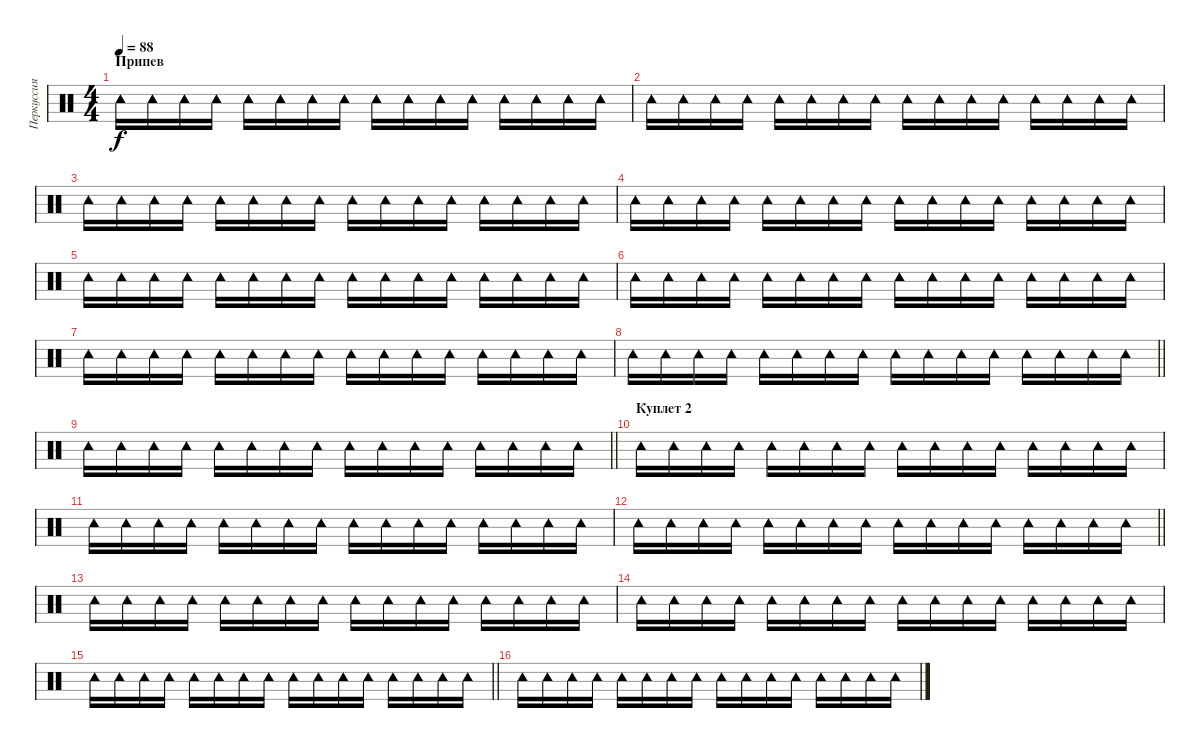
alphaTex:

\track ("Перкуссия 1" "Перкуссия ") {instrument percussion}
\staff {score}
\articulation defaults
\ts (4 4)
\section ("" "Припев")
\tempo 88
\clef neutral
\ks c "Tambourine (hit)".16{dy f} "Tambourine (hit)".16 "Tambourine (hit)".16 "Tambourine (hit)".16 "Tambourine (hit)".16 "Tambourine (hit)".16 "Tambourine (hit)".16 "Tambourine (hit)".16 "Tambourine (hit)".16 "Tambourine (hit)".16 "Tambourine (hit)".16 "Tambourine (hit)".16 "Tambourine (hit)".16 "Tambourine (hit)".16 "Tambourine (hit)".16 "Tambourine (hit)".16
|
"Tambourine (hit)".16 "Tambourine (hit)".16 "Tambourine (hit)".16 "Tambourine (hit)".16 "Tambourine (hit)".16 "Tambourine (hit)".16 "Tambourine (hit)".16 "Tambourine (hit)".16 "Tambourine (hit)".16 "Tambourine (hit)".16 "Tambourine (hit)".16 "Tambourine (hit)".16 "Tambourine (hit)".16 "Tambourine (hit)".16 "Tambourine (hit)".16 "Tambourine (hit)".16 |
"Tambourine (hit)".16 "Tambourine (hit)".16 "Tambourine (hit)".16 "Tambourine (hit)".16 "Tambourine (hit)".16 "Tambourine (hit)".16 "Tambourine (hit)".16 "Tambourine (hit)".16 "Tambourine (hit)".16 "Tambourine (hit)".16 "Tambourine (hit)".16 "Tambourine (hit)".16 "Tambourine (hit)".16 "Tambourine (hit)".16 "Tambourine (hit)".16 "Tambourine (hit)".16 |
"Tambourine (hit)".16 "Tambourine (hit)".16 "Tambourine (hit)".16 "Tambourine (hit)".16 "Tambourine (hit)".16 "Tambourine (hit)".16 "Tambourine (hit)".16 "Tambourine (hit)".16 "Tambourine (hit)".16 "Tambourine (hit)".16 "Tambourine (hit)".16 "Tambourine (hit)".16 "Tambourine (hit)".16 "Tambourine (hit)".16 "Tambourine (hit)".16 "Tambourine (hit)".16 |
"Tambourine (hit)".16 "Tambourine (hit)".16 "Tambourine (hit)".16 "Tambourine (hit)".16 "Tambourine (hit)".16 "Tambourine (hit)".16 "Tambourine (hit)".16 "Tambourine (hit)".16 "Tambourine (hit)".16 "Tambourine (hit)".16 "Tambourine (hit)".16 "Tambourine (hit)".16 "Tambourine (hit)".16 "Tambourine (hit)".16 "Tambourine (hit)".16 "Tambourine (hit)".16 |
"Tambourine (hit)".16 "Tambourine (hit)".16 "Tambourine (hit)".16 "Tambourine (hit)".16 "Tambourine (hit)".16 "Tambourine (hit)".16 "Tambourine (hit)".16 "Tambourine (hit)".16 "Tambourine (hit)".16 "Tambourine (hit)".16 "Tambourine (hit)".16 "Tambourine (hit)".16 "Tambourine (hit)".16 "Tambourine (hit)".16 "Tambourine (hit)".16 "Tambourine (hit)".16 |
"Tambourine (hit)".16 "Tambourine (hit)".16 "Tambourine (hit)".16 "Tambourine (hit)".16 "Tambourine (hit)".16 "Tambourine (hit)".16 "Tambourine (hit)".16 "Tambourine (hit)".16 "Tambourine (hit)".16 "Tambourine (hit)".16 "Tambourine (hit)".16 "Tambourine (hit)".16 "Tambourine (hit)".16 "Tambourine (hit)".16 "Tambourine (hit)".16 "Tambourine (hit)".16 |
\barLineRight lightlight "Tambourine (hit)".16 "Tambourine (hit)".16 "Tambourine (hit)".16 "Tambourine (hit)".16 "Tambourine (hit)".16 "Tambourine (hit)".16 "Tambourine (hit)".16 "Tambourine (hit)".16 "Tambourine (hit)".16 "Tambourine (hit)".16 "Tambourine (hit)".16 "Tambourine (hit)".16 "Tambourine (hit)".16 "Tambourine (hit)".16 "Tambourine (hit)".16 "Tambourine (hit)".16
|
\barLineRight lightlight "Tambourine (hit)".16 "Tambourine (hit)".16 "Tambourine (hit)".16 "Tambourine (hit)".16 "Tambourine (hit)".16 "Tambourine (hit)".16 "Tambourine (hit)".16 "Tambourine (hit)".16 "Tambourine (hit)".16 "Tambourine (hit)".16 "Tambourine (hit)".16 "Tambourine (hit)".16 "Tambourine (hit)".16 "Tambourine (hit)".16 "Tambourine (hit)".16 "Tambourine (hit)".16
|
\section ("" "Куплет 2")
"Tambourine (hit)".16 "Tambourine (hit)".16 "Tambourine (hit)".16 "Tambourine (hit)".16 "Tambourine (hit)".16 "Tambourine (hit)".16 "Tambourine (hit)".16 "Tambourine (hit)".16 "Tambourine (hit)".16 "Tambourine (hit)".16 "Tambourine (hit)".16 "Tambourine (hit)".16 "Tambourine (hit)".16 "Tambourine (hit)".16 "Tambourine (hit)".16 "Tambourine (hit)".16 |
"Tambourine (hit)".16 "Tambourine (hit)".16 "Tambourine (hit)".16 "Tambourine (hit)".16 "Tambourine (hit)".16 "Tambourine (hit)".16 "Tambourine (hit)".16 "Tambourine (hit)".16 "Tambourine (hit)".16 "Tambourine (hit)".16 "Tambourine (hit)".16 "Tambourine (hit)".16 "Tambourine (hit)".16 "Tambourine (hit)".16 "Tambourine (hit)".16 "Tambourine (hit)".16 |
\barLineRight lightlight "Tambourine (hit)".16 "Tambourine (hit)".16 "Tambourine (hit)".16 "Tambourine (hit)".16 "Tambourine (hit)".16 "Tambourine (hit)".16 "Tambourine (hit)".16 "Tambourine (hit)".16 "Tambourine (hit)".16 "Tambourine (hit)".16 "Tambourine (hit)".16 "Tambourine (hit)".16 "Tambourine (hit)".16 "Tambourine (hit)".16 "Tambourine (hit)".16 "Tambourine (hit)".16
|
"Tambourine (hit)".16 "Tambourine (hit)".16 "Tambourine (hit)".16 "Tambourine (hit)".16 "Tambourine (hit)".16 "Tambourine (hit)".16 "Tambourine (hit)".16 "Tambourine (hit)".16 "Tambourine (hit)".16 "Tambourine (hit)".16 "Tambourine (hit)".16 "Tambourine (hit)".16 "Tambourine (hit)".16 "Tambourine (hit)".16 "Tambourine (hit)".16 "Tambourine (hit)".16 |
"Tambourine (hit)".16 "Tambourine (hit)".16 "Tambourine (hit)".16 "Tambourine (hit)".16 "Tambourine (hit)".16 "Tambourine (hit)".16 "Tambourine (hit)".16 "Tambourine (hit)".16 "Tambourine (hit)".16 "Tambourine (hit)".16 "Tambourine (hit)".16 "Tambourine (hit)".16 "Tambourine (hit)".16 "Tambourine (hit)".16 "Tambourine (hit)".16 "Tambourine (hit)".16 |
\barLineRight lightlight "Tambourine (hit)".16 "Tambourine (hit)".16 "Tambourine (hit)".16 "Tambourine (hit)".16 "Tambourine (hit)".16 "Tambourine (hit)".16 "Tambourine (hit)".16 "Tambourine (hit)".16 "Tambourine (hit)".16 "Tambourine (hit)".16 "Tambourine (hit)".16 "Tambourine (hit)".16 "Tambourine (hit)".16 "Tambourine (hit)".16 "Tambourine (hit)".16 "Tambourine (hit)".16
|
"Tambourine (hit)".16 "Tambourine (hit)".16 "Tambourine (hit)".16 "Tambourine (hit)".16 "Tambourine (hit)".16 "Tambourine (hit)".16 "Tambourine (hit)".16 "Tambourine (hit)".16 "Tambourine (hit)".16 "Tambourine (hit)".16 "Tambourine (hit)".16 "Tambourine (hit)".16 "Tambourine (hit)".16 "Tambourine (hit)".16 "Tambourine (hit)".16 "Tambourine (hit)".16
